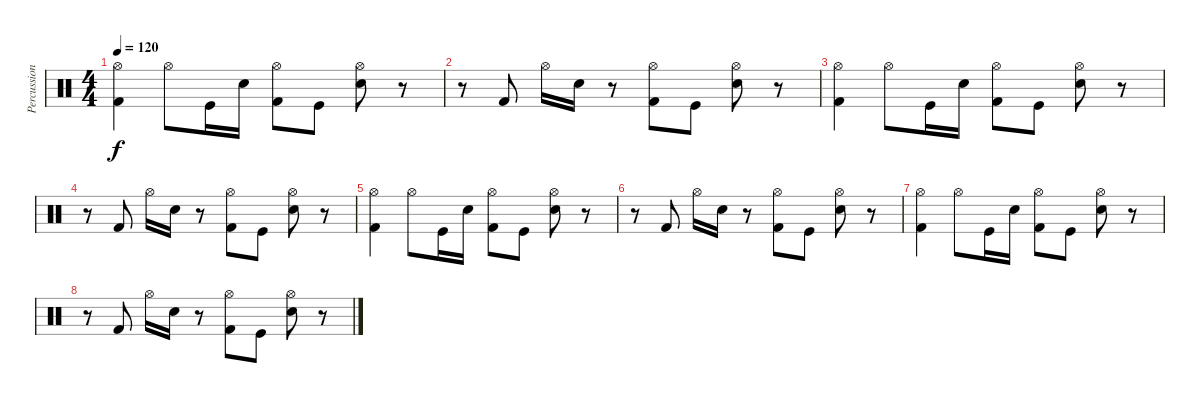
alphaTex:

\track ("Percussion" "Percussion") {instrument percussion}
\staff {score}
\articulation defaults
\ts (4 4)
\tempo 120
\clef neutral
\ks c
("Hi-Hat (open)" "Kick (hit) 2").4{dy f} "Hi-Hat (open)".8 "Kick (hit)".16 "Electric Snare (hit)".16 ("Hi-Hat (open)" "Kick (hit) 2").8 "Kick (hit)".8 ("Hi-Hat (open)" "Electric Snare (hit)").8 r.8 |
r.8 "Kick (hit) 2".8 "Hi-Hat (open)".16 "Electric Snare (hit)".16 r.8 ("Hi-Hat (open)" "Kick (hit) 2").8 "Kick (hit)".8 ("Hi-Hat (open)" "Electric Snare (hit)").8 r.8 |
("Hi-Hat (open)" "Kick (hit) 2").4 "Hi-Hat (open)".8 "Kick (hit)".16 "Electric Snare (hit)".16 ("Hi-Hat (open)" "Kick (hit) 2").8 "Kick (hit)".8 ("Hi-Hat (open)" "Electric Snare (hit)").8 r.8 |
r.8 "Kick (hit) 2".8 "Hi-Hat (open)".16 "Electric Snare (hit)".16 r.8 ("Hi-Hat (open)" "Kick (hit) 2").8 "Kick (hit)".8 ("Hi-Hat (open)" "Electric Snare (hit)").8 r.8 |
("Hi-Hat (open)" "Kick (hit) 2").4 "Hi-Hat (open)".8 "Kick (hit)".16 "Electric Snare (hit)".16 ("Hi-Hat (open)" "Kick (hit) 2").8 "Kick (hit)".8 ("Hi-Hat (open)" "Electric Snare (hit)").8 r.8 |
r.8 "Kick (hit) 2".8 "Hi-Hat (open)".16 "Electric Snare (hit)".16 r.8 ("Hi-Hat (open)" "Kick (hit) 2").8 "Kick (hit)".8 ("Hi-Hat (open)" "Electric Snare (hit)").8 r.8 |
("Hi-Hat (open)" "Kick (hit) 2").4 "Hi-Hat (open)".8 "Kick (hit)".16 "Electric Snare (hit)".16 ("Hi-Hat (open)" "Kick (hit) 2").8 "Kick (hit)".8 ("Hi-Hat (open)" "Electric Snare (hit)").8 r.8 |
r.8 "Kick (hit) 2".8 "Hi-Hat (open)".16 "Electric Snare (hit)".16 r.8 ("Hi-Hat (open)" "Kick (hit) 2").8 "Kick (hit)".8 ("Hi-Hat (open)" "Electric Snare (hit)").8 r.8
